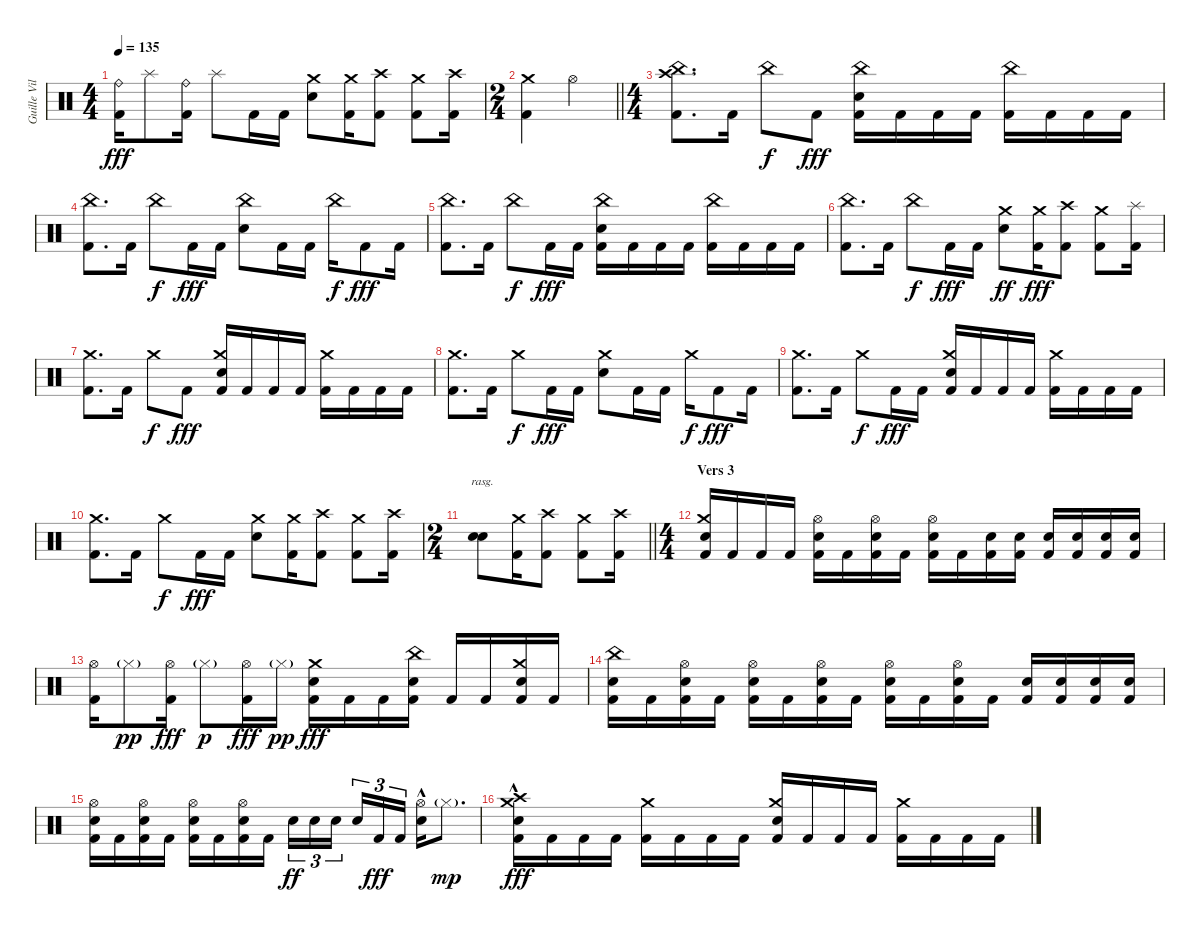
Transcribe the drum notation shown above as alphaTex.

\track ("Guille Vila" "Guille Vil") {instrument percussion}
\staff {score}
\articulation defaults
\ts (4 4)
\tempo 135
\clef neutral
\ks c
("Ride (bell)" "Kick (hit) 2").16{dy fff} "Splash (hit)".8 ("Ride (bell)" "Kick (hit) 2").16 "Splash (hit)".8 "Kick (hit) 2".16 "Kick (hit) 2".16 ("Crash medium (hit)" "Snare (hit) 2").8 ("Crash medium (hit)" "Kick (hit) 2").16 ("Crash high (hit)" "Kick (hit) 2").8 ("Crash medium (hit)" "Kick (hit) 2").8 ("Crash high (hit)" "Kick (hit) 2").16 |
\ts (2 4)
\barLineRight lightlight
("Crash medium (hit)" "Kick (hit) 2").4 "Hi-Hat (open)".4 |
\ts (4 4)
\section ("" "")
("China (hit)" "Crash high (hit)" "Kick (hit) 2").8{d} "Kick (hit) 2".16 "China (hit)".8{dy f} "Kick (hit) 2".8{dy fff} ("China (hit)" "Snare (hit) 2" "Kick (hit) 2").16 "Kick (hit) 2".16 "Kick (hit) 2".16 "Kick (hit) 2".16 ("China (hit)" "Kick (hit) 2").16 "Kick (hit) 2".16 "Kick (hit) 2".16 "Kick (hit) 2".16 |
("China (hit)" "Kick (hit) 2").8{d} "Kick (hit) 2".16 "China (hit)".8{dy f} "Kick (hit) 2".16{dy fff} "Kick (hit) 2".16 ("China (hit)" "Snare (hit) 2").8 "Kick (hit) 2".16 "Kick (hit) 2".16 "China (hit)".16{dy f} "Kick (hit) 2".8{dy fff} "Kick (hit) 2".16 |
("China (hit)" "Kick (hit) 2").8{d} "Kick (hit) 2".16 "China (hit)".8{dy f} "Kick (hit) 2".16{dy fff} "Kick (hit) 2".16 ("China (hit)" "Snare (hit) 2" "Kick (hit) 2").16 "Kick (hit) 2".16 "Kick (hit) 2".16 "Kick (hit) 2".16 ("China (hit)" "Kick (hit) 2").16 "Kick (hit) 2".16 "Kick (hit) 2".16 "Kick (hit) 2".16 |
("China (hit)" "Kick (hit) 2").8{d} "Kick (hit) 2".16 "China (hit)".8{dy f} "Kick (hit) 2".16{dy fff} "Kick (hit) 2".16 ("Crash medium (hit)" "Snare (hit) 2").8{dy ff} ("Crash medium (hit)" "Kick (hit) 2").16{dy fff} ("Crash high (hit)" "Kick (hit) 2").8 ("Crash medium (hit)" "Kick (hit) 2").8 ("Splash (hit)" "Kick (hit) 2").16 |
("Crash medium (hit)" "Kick (hit) 2").8{d} "Kick (hit) 2".16 "Crash medium (hit)".8{dy f} "Kick (hit) 2".8{dy fff} ("Crash medium (hit)" "Snare (hit) 2" "Kick (hit) 2").16 "Kick (hit) 2".16 "Kick (hit) 2".16 "Kick (hit) 2".16 ("Crash medium (hit)" "Kick (hit) 2").16 "Kick (hit) 2".16 "Kick (hit) 2".16 "Kick (hit) 2".16 |
("Crash medium (hit)" "Kick (hit) 2").8{d} "Kick (hit) 2".16 "Crash medium (hit)".8{dy f} "Kick (hit) 2".16{dy fff} "Kick (hit) 2".16 ("Crash medium (hit)" "Snare (hit) 2").8 "Kick (hit) 2".16 "Kick (hit) 2".16 "Crash medium (hit)".16{dy f} "Kick (hit) 2".8{dy fff} "Kick (hit) 2".16 |
("Crash medium (hit)" "Kick (hit) 2").8{d} "Kick (hit) 2".16 "Crash medium (hit)".8{dy f} "Kick (hit) 2".16{dy fff} "Kick (hit) 2".16 ("Crash medium (hit)" "Snare (hit) 2" "Kick (hit) 2").16 "Kick (hit) 2".16 "Kick (hit) 2".16 "Kick (hit) 2".16 ("Crash medium (hit)" "Kick (hit) 2").16 "Kick (hit) 2".16 "Kick (hit) 2".16 "Kick (hit) 2".16 |
("Crash medium (hit)" "Kick (hit) 2").8{d} "Kick (hit) 2".16 "Crash medium (hit)".8{dy f} "Kick (hit) 2".16{dy fff} "Kick (hit) 2".16 ("Crash medium (hit)" "Snare (hit) 2").8 ("Crash medium (hit)" "Kick (hit) 2").16 ("Crash high (hit)" "Kick (hit) 2").8 ("Crash medium (hit)" "Kick (hit) 2").8 ("Crash high (hit)" "Kick (hit) 2").16 |
\ts (2 4)
\barLineRight lightlight
("Snare (hit) 2" "Snare (hit) 2").8{bd 240 rasg ii} ("Crash medium (hit)" "Kick (hit) 2").16 ("Crash high (hit)" "Kick (hit) 2").8 ("Crash medium (hit)" "Kick (hit) 2").8 ("Crash high (hit)" "Kick (hit) 2").16 |
\ts (4 4)
\section ("" "Vers 3")
("Crash medium (hit)" "Snare (hit) 2" "Kick (hit) 2").16 "Kick (hit) 2".16 "Kick (hit) 2".16 "Kick (hit) 2".16 ("Hi-Hat (open)" "Snare (hit) 2" "Kick (hit) 2").16 "Kick (hit) 2".16 ("Hi-Hat (open)" "Snare (hit) 2" "Kick (hit) 2").16 "Kick (hit) 2".16 ("Hi-Hat (open)" "Snare (hit) 2" "Kick (hit) 2").16 "Kick (hit) 2".16 ("Snare (hit) 2" "Kick (hit) 2").16 ("Snare (hit) 2" "Kick (hit) 2").16 ("Snare (hit) 2" "Kick (hit) 2").16 ("Snare (hit) 2" "Kick (hit) 2").16 ("Snare (hit) 2" "Kick (hit) 2").16 ("Snare (hit) 2" "Kick (hit) 2").16 |
("Hi-Hat (open)" "Kick (hit) 2").16 "Hi-Hat (closed)"{g}.8{dy pp} ("Hi-Hat (open)" "Kick (hit) 2").16{dy fff} "Hi-Hat (closed)"{g}.8{dy p} ("Hi-Hat (open)" "Kick (hit) 2").16{dy fff} "Hi-Hat (closed)"{g}.16{dy pp} ("Crash medium (hit)" "Snare (hit) 2" "Kick (hit) 2").16{dy fff} "Kick (hit) 2".16 "Kick (hit) 2".16 ("China (hit)" "Snare (hit) 2" "Kick (hit) 2").16 "Kick (hit) 2".16 "Kick (hit) 2".16 ("Crash medium (hit)" "Snare (hit) 2" "Kick (hit) 2").16 "Kick (hit) 2".16 |
("China (hit)" "Snare (hit) 2" "Kick (hit) 2").16 "Kick (hit) 2".16 ("Hi-Hat (open)" "Snare (hit) 2" "Kick (hit) 2").16 "Kick (hit) 2".16 ("Hi-Hat (open)" "Snare (hit) 2" "Kick (hit) 2").16 "Kick (hit) 2".16 ("Hi-Hat (open)" "Snare (hit) 2" "Kick (hit) 2").16 "Kick (hit) 2".16 ("Hi-Hat (open)" "Snare (hit) 2" "Kick (hit) 2").16 "Kick (hit) 2".16 ("Hi-Hat (open)" "Snare (hit) 2" "Kick (hit) 2").16 "Kick (hit) 2".16 ("Snare (hit) 2" "Kick (hit) 2").16 ("Snare (hit) 2" "Kick (hit) 2").16 ("Snare (hit) 2" "Kick (hit) 2").16 ("Snare (hit) 2" "Kick (hit) 2").16 |
("Hi-Hat (open)" "Snare (hit) 2" "Kick (hit) 2").16 "Kick (hit) 2".16 ("Hi-Hat (open)" "Snare (hit) 2" "Kick (hit) 2").16 "Kick (hit) 2".16 ("Hi-Hat (open)" "Snare (hit) 2" "Kick (hit) 2").16 "Kick (hit) 2".16 ("Hi-Hat (open)" "Snare (hit) 2" "Kick (hit) 2").16 "Kick (hit) 2".16 "Snare (hit) 2".16{tu (3 2) dy ff} "Snare (hit) 2".16{tu (3 2)} "Snare (hit) 2".16{tu (3 2) beam splitsecondary} "Snare (hit) 2".16{tu (3 2)} "Kick (hit) 2".16{tu (3 2) dy fff} "Kick (hit) 2".16{tu (3 2)} ("Hi-Hat (open)"{hac} "Snare (hit) 2").16 "Hi-Hat (closed)"{g}.8{d dy mp} |
("Crash high (hit)" "Crash medium (hit)" "Snare (hit) 2" "Kick (hit) 2"{hac}).16{dy fff} "Kick (hit) 2".16 "Kick (hit) 2".16 "Kick (hit) 2".16 ("Crash medium (hit)" "Kick (hit) 2").16 "Kick (hit) 2".16 "Kick (hit) 2".16 "Kick (hit) 2".16 ("Crash medium (hit)" "Snare (hit) 2" "Kick (hit) 2").16 "Kick (hit) 2".16 "Kick (hit) 2".16 "Kick (hit) 2".16 ("Crash medium (hit)" "Kick (hit) 2").16 "Kick (hit) 2".16 "Kick (hit) 2".16 "Kick (hit) 2".16
